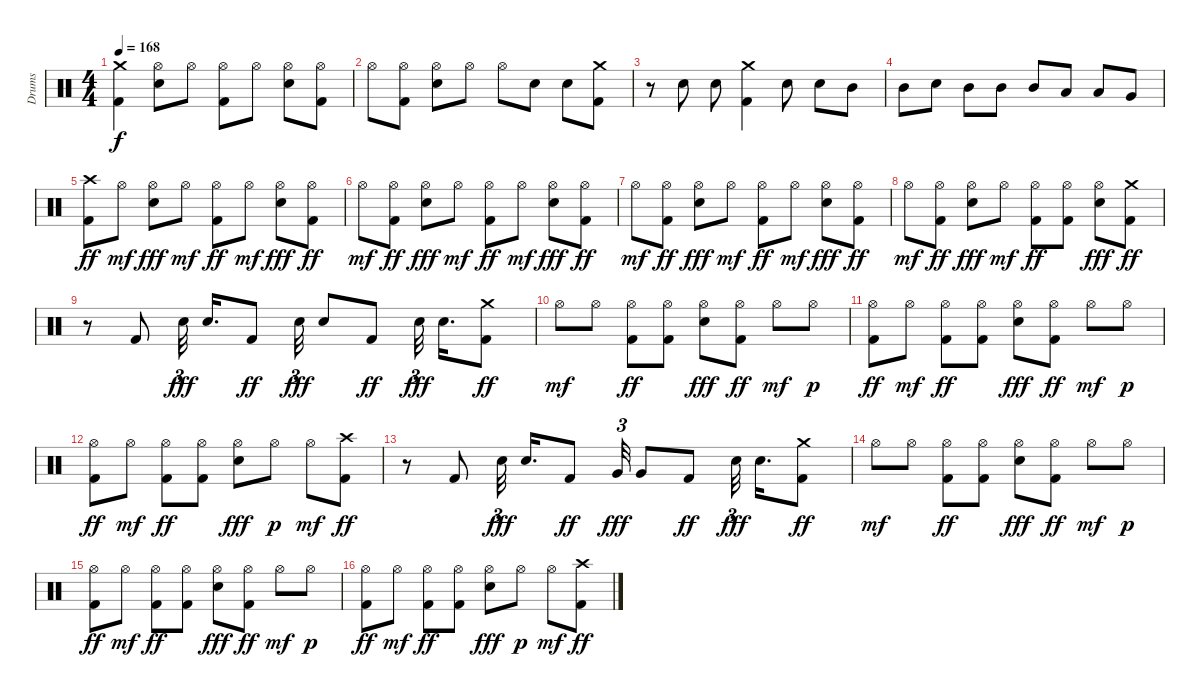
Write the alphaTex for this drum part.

\track ("Drums" "Drums") {instrument percussion}
\staff {score}
\articulation defaults
\ts (4 4)
\tempo 168
\clef neutral
\ks c
("Crash medium (hit)" "Kick (hit) 2").4{dy f} ("Snare (hit) 2" "Hi-Hat (open)").8 "Hi-Hat (open)".8 ("Kick (hit) 2" "Hi-Hat (open)").8 "Hi-Hat (open)".8 ("Snare (hit) 2" "Hi-Hat (open)").8 ("Kick (hit) 2" "Hi-Hat (open)").8 |
"Hi-Hat (open)".8 ("Hi-Hat (open)" "Kick (hit) 2").8 ("Snare (hit) 2" "Hi-Hat (open)").8 "Hi-Hat (open)".8 "Hi-Hat (open)".8 "Snare (hit) 2".8 "Snare (hit) 2".8 ("Kick (hit) 2" "Crash medium (hit)").8 |
r.8 "Snare (hit) 2".8 "Snare (hit) 2".8 ("Crash medium (hit)" "Kick (hit) 2").4 "Snare (hit) 2".8 "Snare (hit) 2".8 "Mid Tom (hit)".8 |
"Mid Tom (hit)".8 "Snare (hit) 2".8 "Mid Tom (hit)".8 "Mid Tom (hit)".8 "Mid Tom (hit)".8 "Low Tom (hit)".8 "Low Tom (hit)".8 "Very Low Tom (hit)".8 |
("Kick (hit) 2" "Crash high (hit)").8{dy ff} "Hi-Hat (open)".8{dy mf} ("Hi-Hat (open)" "Snare (hit) 2").8{dy fff} "Hi-Hat (open)".8{dy mf} ("Hi-Hat (open)" "Kick (hit) 2").8{dy ff} "Hi-Hat (open)".8{dy mf} ("Hi-Hat (open)" "Snare (hit) 2").8{dy fff} ("Hi-Hat (open)" "Kick (hit) 2").8{dy ff} |
"Hi-Hat (open)".8{dy mf} ("Hi-Hat (open)" "Kick (hit) 2").8{dy ff} ("Hi-Hat (open)" "Snare (hit) 2").8{dy fff} "Hi-Hat (open)".8{dy mf} ("Hi-Hat (open)" "Kick (hit) 2").8{dy ff} "Hi-Hat (open)".8{dy mf} ("Hi-Hat (open)" "Snare (hit) 2").8{dy fff} ("Hi-Hat (open)" "Kick (hit) 2").8{dy ff} |
"Hi-Hat (open)".8{dy mf} ("Hi-Hat (open)" "Kick (hit) 2").8{dy ff} ("Hi-Hat (open)" "Snare (hit) 2").8{dy fff} "Hi-Hat (open)".8{dy mf} ("Hi-Hat (open)" "Kick (hit) 2").8{dy ff} "Hi-Hat (open)".8{dy mf} ("Hi-Hat (open)" "Snare (hit) 2").8{dy fff} ("Hi-Hat (open)" "Kick (hit) 2").8{dy ff} |
"Hi-Hat (open)".8{dy mf} ("Hi-Hat (open)" "Kick (hit) 2").8{dy ff} ("Hi-Hat (open)" "Snare (hit) 2").8{dy fff} "Hi-Hat (open)".8{dy mf} ("Hi-Hat (open)" "Kick (hit) 2").8{dy ff} ("Hi-Hat (open)" "Kick (hit) 2").8 ("Hi-Hat (open)" "Snare (hit) 2").8{dy fff} ("Kick (hit) 2" "Crash medium (hit)").8{dy ff} |
r.8 "Kick (hit) 2".8 "Snare (hit) 2".32{tu (3 2) dy fff} "Snare (hit) 2".16{d} "Kick (hit) 2".8{dy ff} "Snare (hit) 2".32{tu (3 2) dy fff} "Snare (hit) 2".8 "Kick (hit) 2".8{dy ff} "Snare (hit) 2".32{tu (3 2) dy fff} "Snare (hit) 2".16{d} ("Kick (hit) 2" "Crash medium (hit)").8{dy ff} |
"Hi-Hat (open)".8{dy mf} "Hi-Hat (open)".8 ("Hi-Hat (open)" "Kick (hit) 2").8{dy ff} ("Hi-Hat (open)" "Kick (hit) 2").8 ("Hi-Hat (open)" "Snare (hit) 2").8{dy fff} ("Hi-Hat (open)" "Kick (hit) 2").8{dy ff} "Hi-Hat (open)".8{dy mf} "Hi-Hat (open)".8{dy p} |
("Hi-Hat (open)" "Kick (hit) 2").8{dy ff} "Hi-Hat (open)".8{dy mf} ("Hi-Hat (open)" "Kick (hit) 2").8{dy ff} ("Hi-Hat (open)" "Kick (hit) 2").8 ("Hi-Hat (open)" "Snare (hit) 2").8{dy fff} ("Hi-Hat (open)" "Kick (hit) 2").8{dy ff} "Hi-Hat (open)".8{dy mf} "Hi-Hat (open)".8{dy p} |
("Hi-Hat (open)" "Kick (hit) 2").8{dy ff} "Hi-Hat (open)".8{dy mf} ("Hi-Hat (open)" "Kick (hit) 2").8{dy ff} ("Hi-Hat (open)" "Kick (hit) 2").8 ("Hi-Hat (open)" "Snare (hit) 2").8{dy fff} "Hi-Hat (open)".8{dy p} "Hi-Hat (open)".8{dy mf} ("Kick (hit) 2" "Crash high (hit)").8{dy ff} |
r.8 "Kick (hit) 2".8 "Snare (hit) 2".32{tu (3 2) dy fff} "Snare (hit) 2".16{d} "Kick (hit) 2".8{dy ff} "Very Low Tom (hit)".32{tu (3 2) dy fff} "Very Low Tom (hit)".8 "Kick (hit) 2".8{dy ff} "Snare (hit) 2".32{tu (3 2) dy fff} "Snare (hit) 2".16{d} ("Kick (hit) 2" "Crash medium (hit)").8{dy ff} |
"Hi-Hat (open)".8{dy mf} "Hi-Hat (open)".8 ("Hi-Hat (open)" "Kick (hit) 2").8{dy ff} ("Hi-Hat (open)" "Kick (hit) 2").8 ("Hi-Hat (open)" "Snare (hit) 2").8{dy fff} ("Hi-Hat (open)" "Kick (hit) 2").8{dy ff} "Hi-Hat (open)".8{dy mf} "Hi-Hat (open)".8{dy p} |
("Hi-Hat (open)" "Kick (hit) 2").8{dy ff} "Hi-Hat (open)".8{dy mf} ("Hi-Hat (open)" "Kick (hit) 2").8{dy ff} ("Hi-Hat (open)" "Kick (hit) 2").8 ("Hi-Hat (open)" "Snare (hit) 2").8{dy fff} ("Hi-Hat (open)" "Kick (hit) 2").8{dy ff} "Hi-Hat (open)".8{dy mf} "Hi-Hat (open)".8{dy p} |
("Hi-Hat (open)" "Kick (hit) 2").8{dy ff} "Hi-Hat (open)".8{dy mf} ("Hi-Hat (open)" "Kick (hit) 2").8{dy ff} ("Hi-Hat (open)" "Kick (hit) 2").8 ("Hi-Hat (open)" "Snare (hit) 2").8{dy fff} "Hi-Hat (open)".8{dy p} "Hi-Hat (open)".8{dy mf} ("Kick (hit) 2" "Crash high (hit)").8{dy ff}
